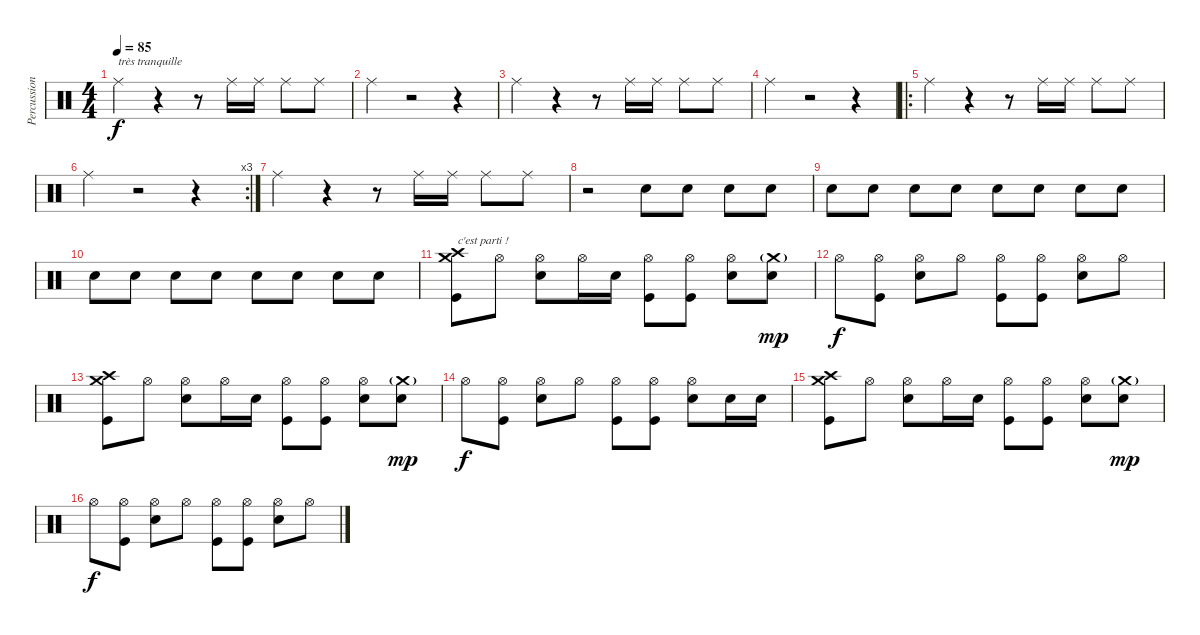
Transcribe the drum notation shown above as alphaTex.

\track ("Percussions" "Percussion") {instrument percussion}
\staff {score}
\articulation defaults
\ts (4 4)
\tempo 85
\clef neutral
\ks c "Ride (middle)".4{txt "très tranquille" dy f}
r.4 r.8 "Ride (middle)".16 "Ride (middle)".16 "Ride (middle)".8 "Ride (middle)".8 |
"Ride (middle)".4 r.2 r.4 |
"Ride (middle)".4 r.4 r.8 "Ride (middle)".16 "Ride (middle)".16 "Ride (middle)".8 "Ride (middle)".8 |
"Ride (middle)".4 r.2 r.4 |
\ro "Ride (middle)".4
r.4 r.8 "Ride (middle)".16 "Ride (middle)".16 "Ride (middle)".8 "Ride (middle)".8 |
\rc 3 "Ride (middle)".4
r.2 r.4 |
"Ride (middle)".4 r.4 r.8 "Ride (middle)".16 "Ride (middle)".16 "Ride (middle)".8 "Ride (middle)".8 |
r.2{volume 4} "Snare (hit) 2".8{volume 10} "Snare (hit) 2".8 "Snare (hit) 2".8 "Snare (hit) 2".8 |
"Snare (hit) 2".8 "Snare (hit) 2".8 "Snare (hit) 2".8 "Snare (hit) 2".8 "Snare (hit) 2".8 "Snare (hit) 2".8 "Snare (hit) 2".8 "Snare (hit) 2".8 |
"Snare (hit) 2".8 "Snare (hit) 2".8 "Snare (hit) 2".8 "Snare (hit) 2".8 "Snare (hit) 2".8 "Snare (hit) 2".8 "Snare (hit) 2".8 "Snare (hit) 2".8 |
("Crash high (hit)" "Crash medium (hit)" "Kick (hit)").8{txt "c'est parti !" volume 12} "Hi-Hat (open)".8 ("Hi-Hat (open)" "Electric Snare (hit)").8 "Hi-Hat (open)".16 "Electric Snare (hit)".16 ("Hi-Hat (open)" "Kick (hit)").8 ("Hi-Hat (open)" "Kick (hit)").8 ("Hi-Hat (open)" "Electric Snare (hit)").8 ("Crash medium (hit)"{g} "Snare (hit) 2").8{dy mp} |
"Hi-Hat (open)".8{dy f} ("Hi-Hat (open)" "Kick (hit)").8 ("Hi-Hat (open)" "Electric Snare (hit)").8 "Hi-Hat (open)".8 ("Hi-Hat (open)" "Kick (hit)").8 ("Hi-Hat (open)" "Kick (hit)").8 ("Hi-Hat (open)" "Electric Snare (hit)").8 "Hi-Hat (open)".8 |
("Crash high (hit)" "Crash medium (hit)" "Kick (hit)").8 "Hi-Hat (open)".8 ("Hi-Hat (open)" "Electric Snare (hit)").8 "Hi-Hat (open)".16 "Electric Snare (hit)".16 ("Hi-Hat (open)" "Kick (hit)").8 ("Hi-Hat (open)" "Kick (hit)").8 ("Hi-Hat (open)" "Electric Snare (hit)").8 ("Crash medium (hit)"{g} "Snare (hit) 2").8{dy mp} |
"Hi-Hat (open)".8{dy f} ("Hi-Hat (open)" "Kick (hit)").8 ("Hi-Hat (open)" "Electric Snare (hit)").8 "Hi-Hat (open)".8 ("Hi-Hat (open)" "Kick (hit)").8 ("Hi-Hat (open)" "Kick (hit)").8 ("Hi-Hat (open)" "Electric Snare (hit)").8 "Snare (hit) 2".16 "Snare (hit) 2".16 |
("Crash high (hit)" "Crash medium (hit)" "Kick (hit)").8{volume 12} "Hi-Hat (open)".8 ("Hi-Hat (open)" "Electric Snare (hit)").8 "Hi-Hat (open)".16 "Electric Snare (hit)".16 ("Hi-Hat (open)" "Kick (hit)").8 ("Hi-Hat (open)" "Kick (hit)").8 ("Hi-Hat (open)" "Electric Snare (hit)").8 ("Crash medium (hit)"{g} "Snare (hit) 2").8{dy mp} |
"Hi-Hat (open)".8{dy f} ("Hi-Hat (open)" "Kick (hit)").8 ("Hi-Hat (open)" "Electric Snare (hit)").8 "Hi-Hat (open)".8 ("Hi-Hat (open)" "Kick (hit)").8 ("Hi-Hat (open)" "Kick (hit)").8 ("Hi-Hat (open)" "Electric Snare (hit)").8 "Hi-Hat (open)".8
